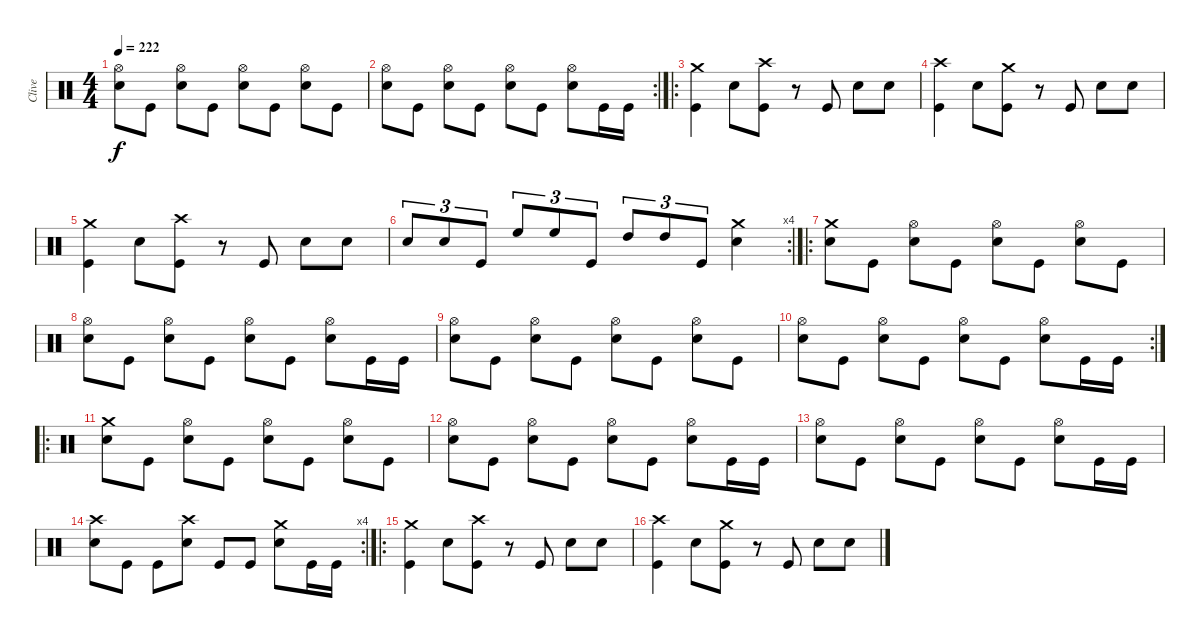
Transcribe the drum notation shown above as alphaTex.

\track ("Clive" "Clive") {instrument percussion}
\staff {score}
\articulation defaults
\ts (4 4)
\tempo 222
\clef neutral
\ks c
("Hi-Hat (open)" "Snare (hit) 2").8{dy f} "Kick (hit)".8 ("Hi-Hat (open)" "Snare (hit) 2").8 "Kick (hit)".8 ("Hi-Hat (open)" "Snare (hit) 2").8 "Kick (hit)".8 ("Hi-Hat (open)" "Snare (hit) 2").8 "Kick (hit)".8 |
\rc 2
("Hi-Hat (open)" "Snare (hit) 2").8 "Kick (hit)".8 ("Hi-Hat (open)" "Snare (hit) 2").8 "Kick (hit)".8 ("Hi-Hat (open)" "Snare (hit) 2").8 "Kick (hit)".8 ("Hi-Hat (open)" "Snare (hit) 2").8 "Kick (hit)".16 "Kick (hit)".16 |
\ro
("Crash medium (hit)" "Kick (hit)").4 "Snare (hit) 2".8 ("Crash high (hit)" "Kick (hit)").8 r.8 "Kick (hit)".8 "Snare (hit) 2".8 "Snare (hit) 2".8 |
("Crash high (hit)" "Kick (hit)").4 "Snare (hit) 2".8 ("Crash medium (hit)" "Kick (hit)").8 r.8 "Kick (hit)".8 "Snare (hit) 2".8 "Snare (hit) 2".8 |
("Crash medium (hit)" "Kick (hit)").4 "Snare (hit) 2".8 ("Crash high (hit)" "Kick (hit)").8 r.8 "Kick (hit)".8 "Snare (hit) 2".8 "Snare (hit) 2".8 |
\rc 4 "Snare (hit) 2".8{tu (3 2)} "Snare (hit) 2".8{tu (3 2)} "Kick (hit)".8{tu (3 2)} "High Floor Tom (hit)".8{tu (3 2)} "High Floor Tom (hit)".8{tu (3 2)} "Kick (hit)".8{tu (3 2)} "High Tom (hit)".8{tu (3 2)} "High Tom (hit)".8{tu (3 2)} "Kick (hit)".8{tu (3 2)}
("Crash medium (hit)" "Snare (hit) 2").4 |
\ro
("Crash medium (hit)" "Snare (hit) 2").8 "Kick (hit)".8 ("Hi-Hat (open)" "Snare (hit) 2").8 "Kick (hit)".8 ("Hi-Hat (open)" "Snare (hit) 2").8 "Kick (hit)".8 ("Hi-Hat (open)" "Snare (hit) 2").8 "Kick (hit)".8 |
("Hi-Hat (open)" "Snare (hit) 2").8 "Kick (hit)".8 ("Hi-Hat (open)" "Snare (hit) 2").8 "Kick (hit)".8 ("Hi-Hat (open)" "Snare (hit) 2").8 "Kick (hit)".8 ("Hi-Hat (open)" "Snare (hit) 2").8 "Kick (hit)".16 "Kick (hit)".16 |
("Hi-Hat (open)" "Snare (hit) 2").8 "Kick (hit)".8 ("Hi-Hat (open)" "Snare (hit) 2").8 "Kick (hit)".8 ("Hi-Hat (open)" "Snare (hit) 2").8 "Kick (hit)".8 ("Hi-Hat (open)" "Snare (hit) 2").8 "Kick (hit)".8 |
\rc 2
("Hi-Hat (open)" "Snare (hit) 2").8 "Kick (hit)".8 ("Hi-Hat (open)" "Snare (hit) 2").8 "Kick (hit)".8 ("Hi-Hat (open)" "Snare (hit) 2").8 "Kick (hit)".8 ("Hi-Hat (open)" "Snare (hit) 2").8 "Kick (hit)".16 "Kick (hit)".16 |
\ro
("Crash medium (hit)" "Snare (hit) 2").8 "Kick (hit)".8 ("Hi-Hat (open)" "Snare (hit) 2").8 "Kick (hit)".8 ("Hi-Hat (open)" "Snare (hit) 2").8 "Kick (hit)".8 ("Hi-Hat (open)" "Snare (hit) 2").8 "Kick (hit)".8 |
("Hi-Hat (open)" "Snare (hit) 2").8 "Kick (hit)".8 ("Hi-Hat (open)" "Snare (hit) 2").8 "Kick (hit)".8 ("Hi-Hat (open)" "Snare (hit) 2").8 "Kick (hit)".8 ("Hi-Hat (open)" "Snare (hit) 2").8 "Kick (hit)".16 "Kick (hit)".16 |
("Hi-Hat (open)" "Snare (hit) 2").8 "Kick (hit)".8 ("Hi-Hat (open)" "Snare (hit) 2").8 "Kick (hit)".8 ("Hi-Hat (open)" "Snare (hit) 2").8 "Kick (hit)".8 ("Hi-Hat (open)" "Snare (hit) 2").8 "Kick (hit)".16 "Kick (hit)".16 |
\rc 4
("Crash high (hit)" "Snare (hit) 2").8 "Kick (hit)".8 "Kick (hit)".8 ("Crash high (hit)" "Snare (hit) 2").8 "Kick (hit)".8 "Kick (hit)".8 ("Crash medium (hit)" "Snare (hit) 2").8 "Kick (hit)".16 "Kick (hit)".16 |
\ro
("Crash medium (hit)" "Kick (hit)").4 "Snare (hit) 2".8 ("Crash high (hit)" "Kick (hit)").8 r.8 "Kick (hit)".8 "Snare (hit) 2".8 "Snare (hit) 2".8 |
("Crash high (hit)" "Kick (hit)").4 "Snare (hit) 2".8 ("Crash medium (hit)" "Kick (hit)").8 r.8 "Kick (hit)".8 "Snare (hit) 2".8 "Snare (hit) 2".8
